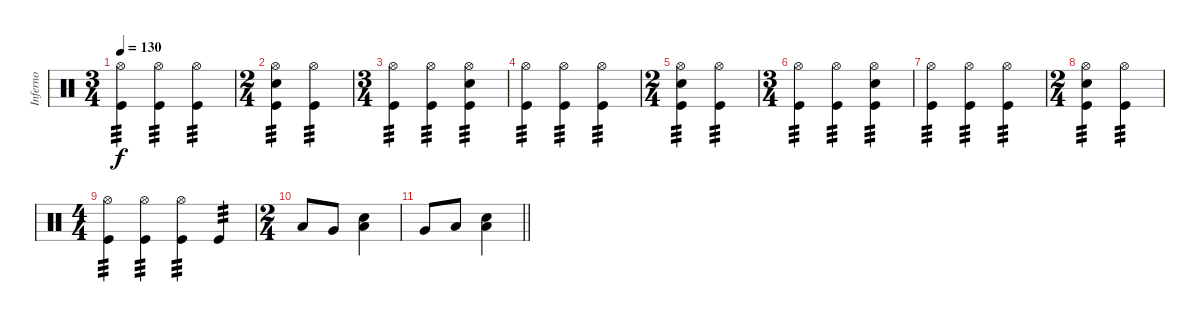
\track ("Inferno" "Inferno") {instrument percussion}
\staff {score}
\articulation defaults
\ts (3 4)
\tempo 130
\clef neutral
\ks c
("Hi-Hat (open)" "Kick (hit)").4{tp 3 dy f} ("Hi-Hat (open)" "Kick (hit)").4{tp 3} ("Hi-Hat (open)" "Kick (hit)").4{tp 3} |
\ts (2 4)
("Hi-Hat (open)" "Snare (hit) 2" "Kick (hit)").4{tp 3} ("Hi-Hat (open)" "Kick (hit)").4{tp 3} |
\ts (3 4)
("Hi-Hat (open)" "Kick (hit)").4{tp 3} ("Hi-Hat (open)" "Kick (hit)").4{tp 3} ("Hi-Hat (open)" "Snare (hit) 2" "Kick (hit)").4{tp 3} |
("Hi-Hat (open)" "Kick (hit)").4{tp 3} ("Hi-Hat (open)" "Kick (hit)").4{tp 3} ("Hi-Hat (open)" "Kick (hit)").4{tp 3} |
\ts (2 4)
("Hi-Hat (open)" "Snare (hit) 2" "Kick (hit)").4{tp 3} ("Hi-Hat (open)" "Kick (hit)").4{tp 3} |
\ts (3 4)
("Hi-Hat (open)" "Kick (hit)").4{tp 3} ("Hi-Hat (open)" "Kick (hit)").4{tp 3} ("Hi-Hat (open)" "Snare (hit) 2" "Kick (hit)").4{tp 3} |
("Hi-Hat (open)" "Kick (hit)").4{tp 3} ("Hi-Hat (open)" "Kick (hit)").4{tp 3} ("Hi-Hat (open)" "Kick (hit)").4{tp 3} |
\ts (2 4)
("Hi-Hat (open)" "Snare (hit) 2" "Kick (hit)").4{tp 3} ("Hi-Hat (open)" "Kick (hit)").4{tp 3} |
\ts (4 4)
("Hi-Hat (open)" "Kick (hit)").4{tp 3} ("Hi-Hat (open)" "Kick (hit)").4{tp 3} ("Hi-Hat (open)" "Kick (hit)").4{tp 3} "Kick (hit)".4{tp 3} |
\ts (2 4)
"Low Tom (hit)".8 "Very Low Tom (hit)".8 ("Snare (hit) 2" "Low Floor Tom (hit)").4 |
\barLineRight lightlight "Very Low Tom (hit)".8 "Low Floor Tom (hit)".8
("Low Floor Tom (hit)" "Snare (hit) 2").4
